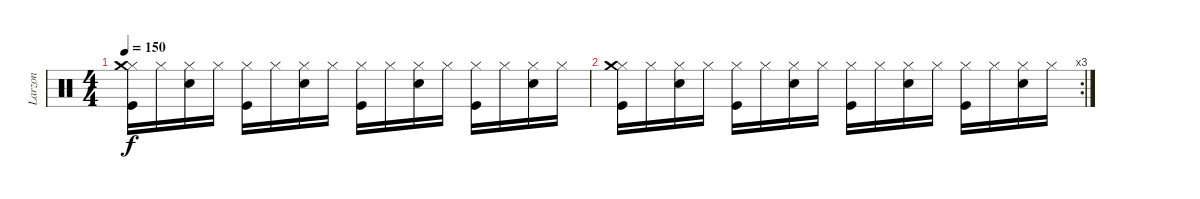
\track ("Larzon" "Larzon") {instrument percussion}
\staff {score}
\articulation defaults
\ts (4 4)
\tempo 150
\clef neutral
\ks c
("Hi-Hat (closed)" "Crash medium (hit)" "Kick (hit)").16{dy f} "Hi-Hat (closed)".16 ("Hi-Hat (closed)" "Snare (hit) 2").16 "Hi-Hat (closed)".16 ("Hi-Hat (closed)" "Kick (hit)").16 "Hi-Hat (closed)".16 ("Hi-Hat (closed)" "Snare (hit) 2").16 "Hi-Hat (closed)".16 ("Hi-Hat (closed)" "Kick (hit)").16 "Hi-Hat (closed)".16 ("Hi-Hat (closed)" "Snare (hit) 2").16 "Hi-Hat (closed)".16 ("Hi-Hat (closed)" "Kick (hit)").16 "Hi-Hat (closed)".16 ("Hi-Hat (closed)" "Snare (hit) 2").16 "Hi-Hat (closed)".16 |
\rc 3
("Hi-Hat (closed)" "Crash medium (hit)" "Kick (hit)").16 "Hi-Hat (closed)".16 ("Hi-Hat (closed)" "Snare (hit) 2").16 "Hi-Hat (closed)".16 ("Hi-Hat (closed)" "Kick (hit)").16 "Hi-Hat (closed)".16 ("Hi-Hat (closed)" "Snare (hit) 2").16 "Hi-Hat (closed)".16 ("Hi-Hat (closed)" "Kick (hit)").16 "Hi-Hat (closed)".16 ("Hi-Hat (closed)" "Snare (hit) 2").16 "Hi-Hat (closed)".16 ("Hi-Hat (closed)" "Kick (hit)").16 "Hi-Hat (closed)".16 ("Hi-Hat (closed)" "Snare (hit) 2").16 "Hi-Hat (closed)".16
